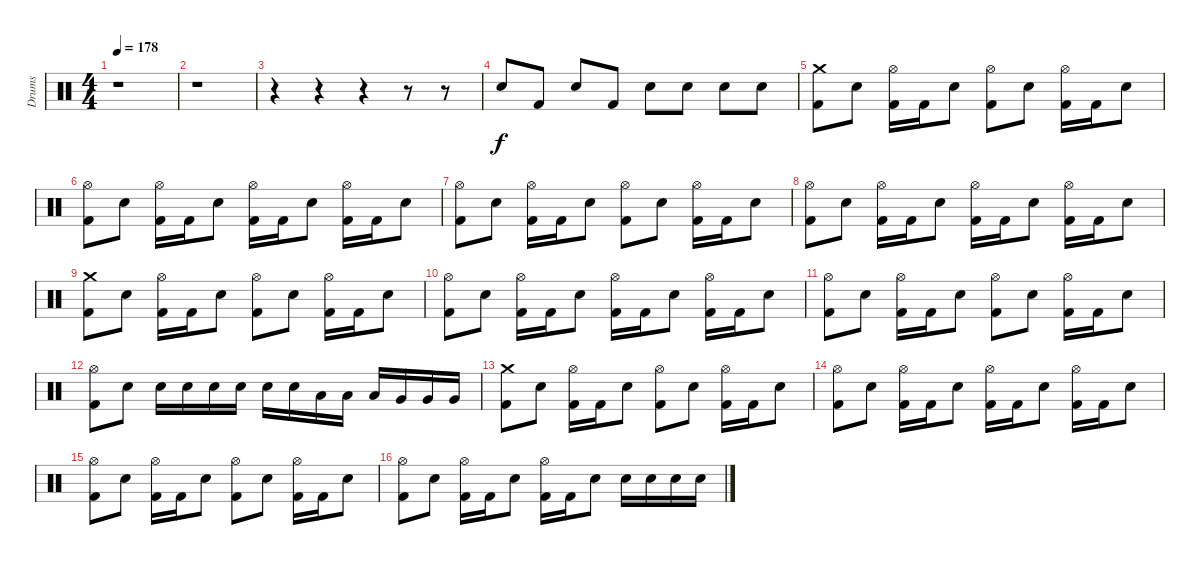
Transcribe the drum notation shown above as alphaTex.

\track ("Drums" "Drums") {instrument percussion}
\staff {score}
\articulation defaults
\ts (4 4)
\tempo 178
\clef neutral
\ks c
r.1{dy f} |
r.1 |
r.4 r.4 r.4 r.8 r.8 |
"Electric Snare (hit)".8 "Kick (hit) 2".8 "Electric Snare (hit)".8 "Kick (hit) 2".8 "Electric Snare (hit)".8 "Electric Snare (hit)".8 "Electric Snare (hit)".8 "Electric Snare (hit)".8 |
("Crash medium (hit)" "Kick (hit) 2").8 "Electric Snare (hit)".8 ("Hi-Hat (open)" "Kick (hit) 2").16 "Kick (hit) 2".16 "Electric Snare (hit)".8 ("Hi-Hat (open)" "Kick (hit) 2").8 "Electric Snare (hit)".8 ("Hi-Hat (open)" "Kick (hit) 2").16 "Kick (hit) 2".16 "Electric Snare (hit)".8 |
("Hi-Hat (open)" "Kick (hit) 2").8 "Electric Snare (hit)".8 ("Hi-Hat (open)" "Kick (hit) 2").16 "Kick (hit) 2".16 "Electric Snare (hit)".8 ("Hi-Hat (open)" "Kick (hit) 2").16 "Kick (hit) 2".16 "Electric Snare (hit)".8 ("Hi-Hat (open)" "Kick (hit) 2").16 "Kick (hit) 2".16 "Electric Snare (hit)".8 |
("Hi-Hat (open)" "Kick (hit) 2").8 "Electric Snare (hit)".8 ("Hi-Hat (open)" "Kick (hit) 2").16 "Kick (hit) 2".16 "Electric Snare (hit)".8 ("Hi-Hat (open)" "Kick (hit) 2").8 "Electric Snare (hit)".8 ("Hi-Hat (open)" "Kick (hit) 2").16 "Kick (hit) 2".16 "Electric Snare (hit)".8 |
("Hi-Hat (open)" "Kick (hit) 2").8 "Electric Snare (hit)".8 ("Hi-Hat (open)" "Kick (hit) 2").16 "Kick (hit) 2".16 "Electric Snare (hit)".8 ("Hi-Hat (open)" "Kick (hit) 2").16 "Kick (hit) 2".16 "Electric Snare (hit)".8 ("Hi-Hat (open)" "Kick (hit) 2").16 "Kick (hit) 2".16 "Electric Snare (hit)".8 |
("Crash medium (hit)" "Kick (hit) 2").8 "Electric Snare (hit)".8 ("Hi-Hat (open)" "Kick (hit) 2").16 "Kick (hit) 2".16 "Electric Snare (hit)".8 ("Hi-Hat (open)" "Kick (hit) 2").8 "Electric Snare (hit)".8 ("Hi-Hat (open)" "Kick (hit) 2").16 "Kick (hit) 2".16 "Electric Snare (hit)".8 |
("Hi-Hat (open)" "Kick (hit) 2").8 "Electric Snare (hit)".8 ("Hi-Hat (open)" "Kick (hit) 2").16 "Kick (hit) 2".16 "Electric Snare (hit)".8 ("Hi-Hat (open)" "Kick (hit) 2").16 "Kick (hit) 2".16 "Electric Snare (hit)".8 ("Hi-Hat (open)" "Kick (hit) 2").16 "Kick (hit) 2".16 "Electric Snare (hit)".8 |
("Hi-Hat (open)" "Kick (hit) 2").8 "Electric Snare (hit)".8 ("Hi-Hat (open)" "Kick (hit) 2").16 "Kick (hit) 2".16 "Electric Snare (hit)".8 ("Hi-Hat (open)" "Kick (hit) 2").8 "Electric Snare (hit)".8 ("Hi-Hat (open)" "Kick (hit) 2").16 "Kick (hit) 2".16 "Electric Snare (hit)".8 |
("Hi-Hat (open)" "Kick (hit) 2").8 "Electric Snare (hit)".8 "Electric Snare (hit)".16 "Electric Snare (hit)".16 "Electric Snare (hit)".16 "Electric Snare (hit)".16 "Electric Snare (hit)".16 "Electric Snare (hit)".16 "Low Tom (hit)".16 "Low Tom (hit)".16 "Low Tom (hit)".16 "Very Low Tom (hit)".16 "Very Low Tom (hit)".16 "Very Low Tom (hit)".16 |
("Crash medium (hit)" "Kick (hit) 2").8 "Electric Snare (hit)".8 ("Hi-Hat (open)" "Kick (hit) 2").16 "Kick (hit) 2".16 "Electric Snare (hit)".8 ("Hi-Hat (open)" "Kick (hit) 2").8 "Electric Snare (hit)".8 ("Hi-Hat (open)" "Kick (hit) 2").16 "Kick (hit) 2".16 "Electric Snare (hit)".8 |
("Hi-Hat (open)" "Kick (hit) 2").8 "Electric Snare (hit)".8 ("Hi-Hat (open)" "Kick (hit) 2").16 "Kick (hit) 2".16 "Electric Snare (hit)".8 ("Hi-Hat (open)" "Kick (hit) 2").16 "Kick (hit) 2".16 "Electric Snare (hit)".8 ("Hi-Hat (open)" "Kick (hit) 2").16 "Kick (hit) 2".16 "Electric Snare (hit)".8 |
("Hi-Hat (open)" "Kick (hit) 2").8 "Electric Snare (hit)".8 ("Hi-Hat (open)" "Kick (hit) 2").16 "Kick (hit) 2".16 "Electric Snare (hit)".8 ("Hi-Hat (open)" "Kick (hit) 2").8 "Electric Snare (hit)".8 ("Hi-Hat (open)" "Kick (hit) 2").16 "Kick (hit) 2".16 "Electric Snare (hit)".8 |
("Hi-Hat (open)" "Kick (hit) 2").8 "Electric Snare (hit)".8 ("Hi-Hat (open)" "Kick (hit) 2").16 "Kick (hit) 2".16 "Electric Snare (hit)".8 ("Hi-Hat (open)" "Kick (hit) 2").16 "Kick (hit) 2".16 "Electric Snare (hit)".8 "Electric Snare (hit)".16 "Electric Snare (hit)".16 "Electric Snare (hit)".16 "Electric Snare (hit)".16
